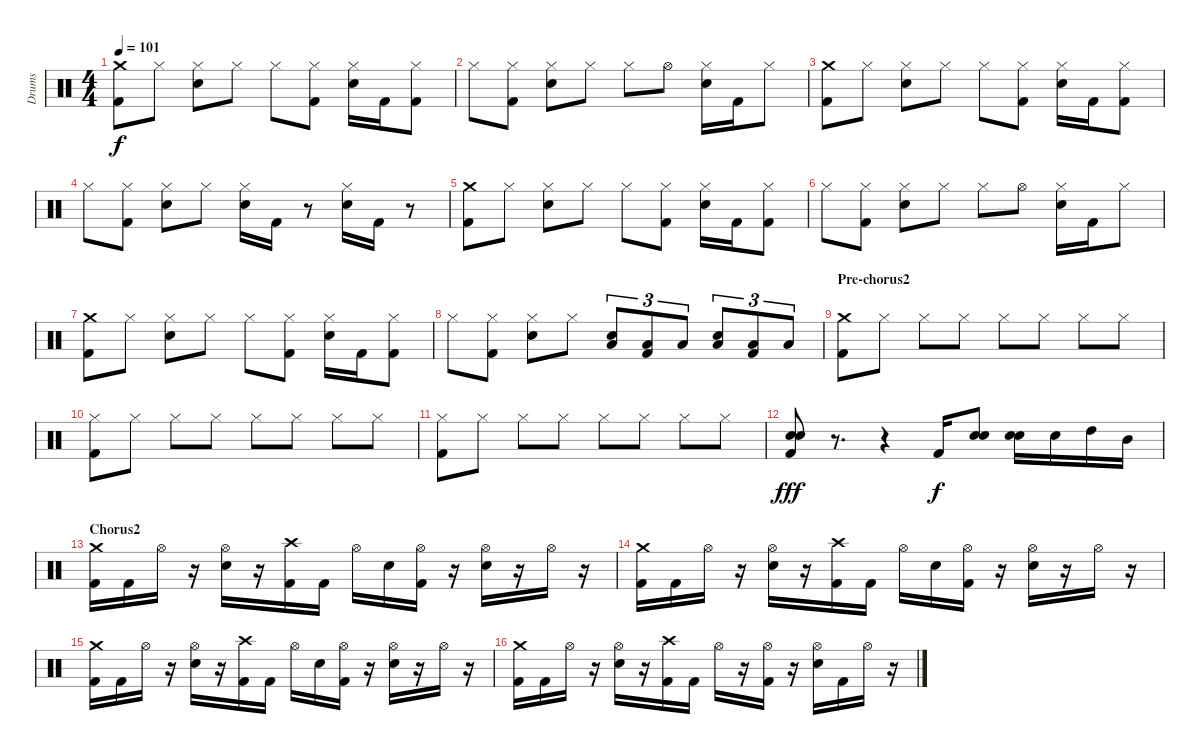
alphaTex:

\track ("Drums" "Drums") {instrument percussion}
\staff {score}
\articulation defaults
\ts (4 4)
\tempo 101
\clef neutral
\ks c
("Crash medium (hit)" "Kick (hit) 2").8{dy f} "Hi-Hat (closed)".8 ("Hi-Hat (closed)" "Electric Snare (hit)").8 "Hi-Hat (closed)".8 "Hi-Hat (closed)".8 ("Hi-Hat (closed)" "Kick (hit) 2").8 ("Hi-Hat (closed)" "Electric Snare (hit)").16 "Kick (hit) 2".16 ("Hi-Hat (closed)" "Kick (hit) 2").8 |
"Hi-Hat (closed)".8 ("Hi-Hat (closed)" "Kick (hit) 2").8 ("Hi-Hat (closed)" "Electric Snare (hit)").8 "Hi-Hat (closed)".8 "Hi-Hat (closed)".8 "Hi-Hat (open)".8 ("Hi-Hat (closed)" "Electric Snare (hit)").16 "Kick (hit) 2".16 "Hi-Hat (closed)".8 |
("Crash medium (hit)" "Kick (hit) 2").8 "Hi-Hat (closed)".8 ("Hi-Hat (closed)" "Electric Snare (hit)").8 "Hi-Hat (closed)".8 "Hi-Hat (closed)".8 ("Hi-Hat (closed)" "Kick (hit) 2").8 ("Hi-Hat (closed)" "Electric Snare (hit)").16 "Kick (hit) 2".16 ("Hi-Hat (closed)" "Kick (hit) 2").8 |
"Hi-Hat (closed)".8 ("Hi-Hat (closed)" "Kick (hit) 2").8 ("Hi-Hat (closed)" "Electric Snare (hit)").8 "Hi-Hat (closed)".8 ("Hi-Hat (closed)" "Electric Snare (hit)").16 "Kick (hit) 2".16 r.8 ("Hi-Hat (closed)" "Electric Snare (hit)").16 "Kick (hit) 2".16 r.8 |
("Crash medium (hit)" "Kick (hit) 2").8 "Hi-Hat (closed)".8 ("Hi-Hat (closed)" "Electric Snare (hit)").8 "Hi-Hat (closed)".8 "Hi-Hat (closed)".8 ("Hi-Hat (closed)" "Kick (hit) 2").8 ("Hi-Hat (closed)" "Electric Snare (hit)").16 "Kick (hit) 2".16 ("Hi-Hat (closed)" "Kick (hit) 2").8 |
"Hi-Hat (closed)".8 ("Hi-Hat (closed)" "Kick (hit) 2").8 ("Hi-Hat (closed)" "Electric Snare (hit)").8 "Hi-Hat (closed)".8 "Hi-Hat (closed)".8 "Hi-Hat (open)".8 ("Hi-Hat (closed)" "Electric Snare (hit)").16 "Kick (hit) 2".16 "Hi-Hat (closed)".8 |
("Crash medium (hit)" "Kick (hit) 2").8 "Hi-Hat (closed)".8 ("Hi-Hat (closed)" "Electric Snare (hit)").8 "Hi-Hat (closed)".8 "Hi-Hat (closed)".8 ("Hi-Hat (closed)" "Kick (hit) 2").8 ("Hi-Hat (closed)" "Electric Snare (hit)").16 "Kick (hit) 2".16 ("Hi-Hat (closed)" "Kick (hit) 2").8 |
"Hi-Hat (closed)".8 ("Hi-Hat (closed)" "Kick (hit) 2").8 ("Hi-Hat (closed)" "Electric Snare (hit)").8 "Hi-Hat (closed)".8 ("Low Tom (hit)" "Electric Snare (hit)").8{tu (3 2)} ("Low Tom (hit)" "Kick (hit) 2").8{tu (3 2)} "Low Tom (hit)".8{tu (3 2)} ("Low Tom (hit)" "Electric Snare (hit)").8{tu (3 2)} ("Low Tom (hit)" "Kick (hit) 2").8{tu (3 2)} "Low Tom (hit)".8{tu (3 2)} |
\section ("" "Pre-chorus2")
("Crash medium (hit)" "Kick (hit) 2").8 "Hi-Hat (closed)".8 "Hi-Hat (closed)".8 "Hi-Hat (closed)".8 "Hi-Hat (closed)".8 "Hi-Hat (closed)".8 "Hi-Hat (closed)".8 "Hi-Hat (closed)".8 |
("Hi-Hat (closed)" "Kick (hit) 2").8 "Hi-Hat (closed)".8 "Hi-Hat (closed)".8 "Hi-Hat (closed)".8 "Hi-Hat (closed)".8 "Hi-Hat (closed)".8 "Hi-Hat (closed)".8 "Hi-Hat (closed)".8 |
("Hi-Hat (closed)" "Kick (hit) 2").8 "Hi-Hat (closed)".8 "Hi-Hat (closed)".8 "Hi-Hat (closed)".8 "Hi-Hat (closed)".8 "Hi-Hat (closed)".8 "Hi-Hat (closed)".8 "Hi-Hat (closed)".8 |
("Electric Snare (hit)" "Electric Snare (hit)" "Kick (hit) 2").8{dy fff} r.8{d} r.4 "Kick (hit) 2".16{dy f} ("Electric Snare (hit)" "Electric Snare (hit)").8 ("Electric Snare (hit)" "Electric Snare (hit)").16 "Electric Snare (hit)".16 "High Tom (hit)".16 "Mid Tom (hit)".16 |
\section ("" "Chorus2")
("Crash medium (hit)" "Kick (hit) 2").16 "Kick (hit) 2".16 "Hi-Hat (open)".16 r.16 ("Hi-Hat (open)" "Electric Snare (hit)").16 r.16 ("Crash high (hit)" "Kick (hit) 2").16 "Kick (hit) 2".16 "Hi-Hat (open)".16 "Electric Snare (hit)".16 ("Hi-Hat (open)" "Kick (hit) 2").16 r.16 ("Hi-Hat (open)" "Electric Snare (hit)").16 r.16 "Hi-Hat (open)".16 r.16 |
("Crash medium (hit)" "Kick (hit) 2").16 "Kick (hit) 2".16 "Hi-Hat (open)".16 r.16 ("Hi-Hat (open)" "Electric Snare (hit)").16 r.16 ("Crash high (hit)" "Kick (hit) 2").16 "Kick (hit) 2".16 "Hi-Hat (open)".16 "Electric Snare (hit)".16 ("Hi-Hat (open)" "Kick (hit) 2").16 r.16 ("Hi-Hat (open)" "Electric Snare (hit)").16 r.16 "Hi-Hat (open)".16 r.16 |
("Crash medium (hit)" "Kick (hit) 2").16 "Kick (hit) 2".16 "Hi-Hat (open)".16 r.16 ("Hi-Hat (open)" "Electric Snare (hit)").16 r.16 ("Crash high (hit)" "Kick (hit) 2").16 "Kick (hit) 2".16 "Hi-Hat (open)".16 "Electric Snare (hit)".16 ("Hi-Hat (open)" "Kick (hit) 2").16 r.16 ("Hi-Hat (open)" "Electric Snare (hit)").16 r.16 "Hi-Hat (open)".16 r.16 |
("Crash medium (hit)" "Kick (hit) 2").16 "Kick (hit) 2".16 "Hi-Hat (open)".16 r.16 ("Hi-Hat (open)" "Electric Snare (hit)").16 r.16 ("Crash high (hit)" "Kick (hit) 2").16 "Kick (hit) 2".16 "Hi-Hat (open)".16 r.16 ("Hi-Hat (open)" "Kick (hit) 2").16 r.16 ("Hi-Hat (open)" "Electric Snare (hit)").16 "Kick (hit) 2".16 "Hi-Hat (open)".16 r.16
